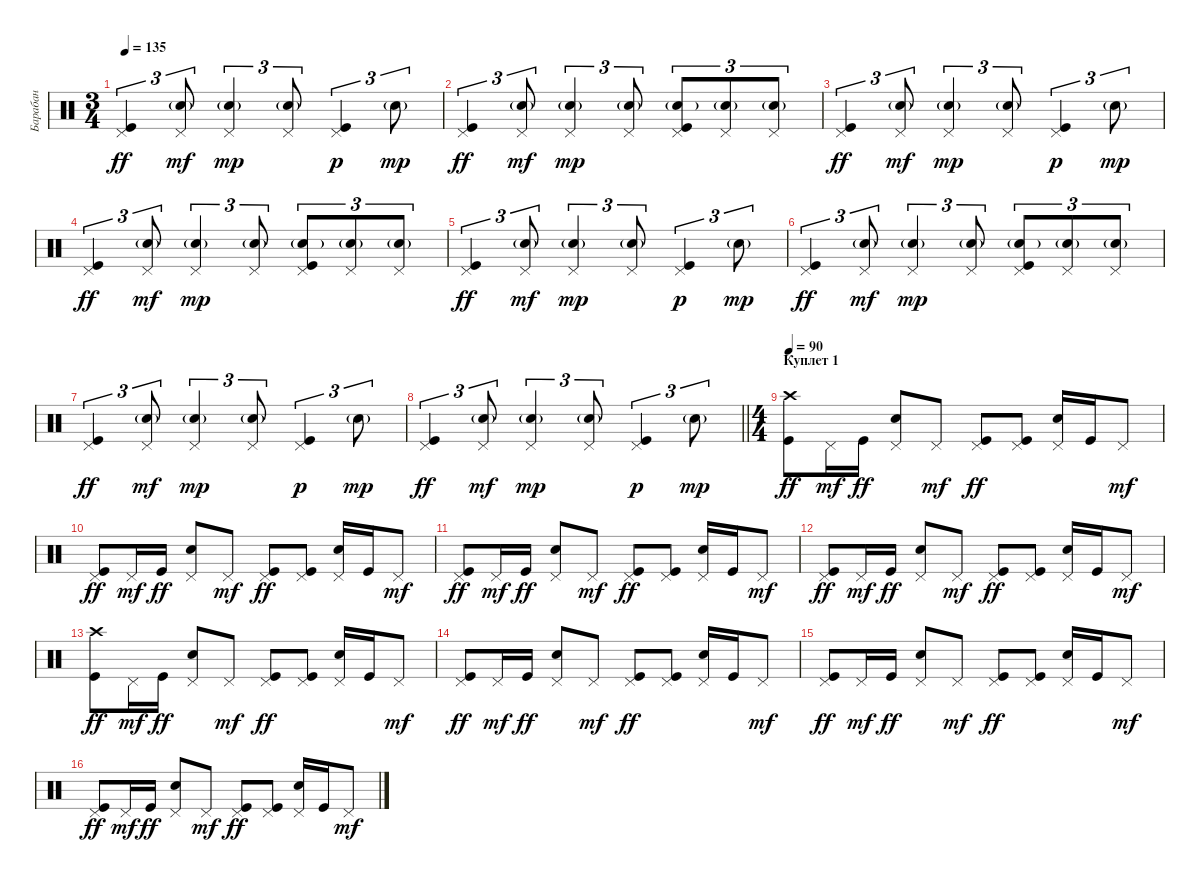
\track ("Барабан" "Барабан") {instrument percussion}
\staff {score}
\articulation defaults
\ts (3 4)
\tempo 135
\clef neutral
\ks c
("Pedal Hi-Hat (hit)" "Kick (hit)").4{tu (3 2) dy ff} ("Pedal Hi-Hat (hit)" "Snare (hit) 2"{g}).8{tu (3 2) dy mf} ("Pedal Hi-Hat (hit)" "Snare (hit) 2"{g}).4{tu (3 2) dy mp} ("Pedal Hi-Hat (hit)" "Snare (hit) 2"{g}).8{tu (3 2)} ("Pedal Hi-Hat (hit)" "Kick (hit)").4{tu (3 2) dy p} "Snare (hit) 2"{g}.8{tu (3 2) dy mp} |
("Pedal Hi-Hat (hit)" "Kick (hit)").4{tu (3 2) dy ff} ("Pedal Hi-Hat (hit)" "Snare (hit) 2"{g}).8{tu (3 2) dy mf} ("Pedal Hi-Hat (hit)" "Snare (hit) 2"{g}).4{tu (3 2) dy mp} ("Pedal Hi-Hat (hit)" "Snare (hit) 2"{g}).8{tu (3 2)} ("Pedal Hi-Hat (hit)" "Snare (hit) 2"{g} "Kick (hit)").8{tu (3 2)} ("Pedal Hi-Hat (hit)" "Snare (hit) 2"{g}).8{tu (3 2)} ("Pedal Hi-Hat (hit)" "Snare (hit) 2"{g}).8{tu (3 2)} |
("Pedal Hi-Hat (hit)" "Kick (hit)").4{tu (3 2) dy ff} ("Pedal Hi-Hat (hit)" "Snare (hit) 2"{g}).8{tu (3 2) dy mf} ("Pedal Hi-Hat (hit)" "Snare (hit) 2"{g}).4{tu (3 2) dy mp} ("Pedal Hi-Hat (hit)" "Snare (hit) 2"{g}).8{tu (3 2)} ("Pedal Hi-Hat (hit)" "Kick (hit)").4{tu (3 2) dy p} "Snare (hit) 2"{g}.8{tu (3 2) dy mp} |
("Pedal Hi-Hat (hit)" "Kick (hit)").4{tu (3 2) dy ff} ("Pedal Hi-Hat (hit)" "Snare (hit) 2"{g}).8{tu (3 2) dy mf} ("Pedal Hi-Hat (hit)" "Snare (hit) 2"{g}).4{tu (3 2) dy mp} ("Pedal Hi-Hat (hit)" "Snare (hit) 2"{g}).8{tu (3 2)} ("Pedal Hi-Hat (hit)" "Snare (hit) 2"{g} "Kick (hit)").8{tu (3 2)} ("Pedal Hi-Hat (hit)" "Snare (hit) 2"{g}).8{tu (3 2)} ("Pedal Hi-Hat (hit)" "Snare (hit) 2"{g}).8{tu (3 2)} |
("Pedal Hi-Hat (hit)" "Kick (hit)").4{tu (3 2) dy ff} ("Pedal Hi-Hat (hit)" "Snare (hit) 2"{g}).8{tu (3 2) dy mf} ("Pedal Hi-Hat (hit)" "Snare (hit) 2"{g}).4{tu (3 2) dy mp} ("Pedal Hi-Hat (hit)" "Snare (hit) 2"{g}).8{tu (3 2)} ("Pedal Hi-Hat (hit)" "Kick (hit)").4{tu (3 2) dy p} "Snare (hit) 2"{g}.8{tu (3 2) dy mp} |
("Pedal Hi-Hat (hit)" "Kick (hit)").4{tu (3 2) dy ff} ("Pedal Hi-Hat (hit)" "Snare (hit) 2"{g}).8{tu (3 2) dy mf} ("Pedal Hi-Hat (hit)" "Snare (hit) 2"{g}).4{tu (3 2) dy mp} ("Pedal Hi-Hat (hit)" "Snare (hit) 2"{g}).8{tu (3 2)} ("Pedal Hi-Hat (hit)" "Snare (hit) 2"{g} "Kick (hit)").8{tu (3 2)} ("Pedal Hi-Hat (hit)" "Snare (hit) 2"{g}).8{tu (3 2)} ("Pedal Hi-Hat (hit)" "Snare (hit) 2"{g}).8{tu (3 2)} |
("Pedal Hi-Hat (hit)" "Kick (hit)").4{tu (3 2) dy ff} ("Pedal Hi-Hat (hit)" "Snare (hit) 2"{g}).8{tu (3 2) dy mf} ("Pedal Hi-Hat (hit)" "Snare (hit) 2"{g}).4{tu (3 2) dy mp} ("Pedal Hi-Hat (hit)" "Snare (hit) 2"{g}).8{tu (3 2)} ("Pedal Hi-Hat (hit)" "Kick (hit)").4{tu (3 2) dy p} "Snare (hit) 2"{g}.8{tu (3 2) dy mp} |
\barLineRight lightlight
("Pedal Hi-Hat (hit)" "Kick (hit)").4{tu (3 2) dy ff} ("Pedal Hi-Hat (hit)" "Snare (hit) 2"{g}).8{tu (3 2) dy mf} ("Pedal Hi-Hat (hit)" "Snare (hit) 2"{g}).4{tu (3 2) dy mp} ("Pedal Hi-Hat (hit)" "Snare (hit) 2"{g}).8{tu (3 2)} ("Pedal Hi-Hat (hit)" "Kick (hit)").4{tu (3 2) dy p} "Snare (hit) 2"{g}.8{tu (3 2) dy mp} |
\ts (4 4)
\section ("" "Куплет 1")
\tempo 90
("Crash high (hit)" "Kick (hit)").8{dy ff} "Pedal Hi-Hat (hit)".16{dy mf} "Kick (hit)".16{dy ff} ("Pedal Hi-Hat (hit)" "Snare (hit) 2").8 "Pedal Hi-Hat (hit)".8{dy mf} ("Pedal Hi-Hat (hit)" "Kick (hit)").8{dy ff} ("Pedal Hi-Hat (hit)" "Kick (hit)").8 ("Pedal Hi-Hat (hit)" "Snare (hit) 2").16 "Kick (hit)".16 "Pedal Hi-Hat (hit)".8{dy mf} |
("Pedal Hi-Hat (hit)" "Kick (hit)").8{dy ff} "Pedal Hi-Hat (hit)".16{dy mf} "Kick (hit)".16{dy ff} ("Pedal Hi-Hat (hit)" "Snare (hit) 2").8 "Pedal Hi-Hat (hit)".8{dy mf} ("Pedal Hi-Hat (hit)" "Kick (hit)").8{dy ff} ("Pedal Hi-Hat (hit)" "Kick (hit)").8 ("Pedal Hi-Hat (hit)" "Snare (hit) 2").16 "Kick (hit)".16 "Pedal Hi-Hat (hit)".8{dy mf} |
("Pedal Hi-Hat (hit)" "Kick (hit)").8{dy ff} "Pedal Hi-Hat (hit)".16{dy mf} "Kick (hit)".16{dy ff} ("Pedal Hi-Hat (hit)" "Snare (hit) 2").8 "Pedal Hi-Hat (hit)".8{dy mf} ("Pedal Hi-Hat (hit)" "Kick (hit)").8{dy ff} ("Pedal Hi-Hat (hit)" "Kick (hit)").8 ("Pedal Hi-Hat (hit)" "Snare (hit) 2").16 "Kick (hit)".16 "Pedal Hi-Hat (hit)".8{dy mf} |
("Pedal Hi-Hat (hit)" "Kick (hit)").8{dy ff} "Pedal Hi-Hat (hit)".16{dy mf} "Kick (hit)".16{dy ff} ("Pedal Hi-Hat (hit)" "Snare (hit) 2").8 "Pedal Hi-Hat (hit)".8{dy mf} ("Pedal Hi-Hat (hit)" "Kick (hit)").8{dy ff} ("Pedal Hi-Hat (hit)" "Kick (hit)").8 ("Pedal Hi-Hat (hit)" "Snare (hit) 2").16 "Kick (hit)".16 "Pedal Hi-Hat (hit)".8{dy mf} |
("Crash high (hit)" "Kick (hit)").8{dy ff} "Pedal Hi-Hat (hit)".16{dy mf} "Kick (hit)".16{dy ff} ("Pedal Hi-Hat (hit)" "Snare (hit) 2").8 "Pedal Hi-Hat (hit)".8{dy mf} ("Pedal Hi-Hat (hit)" "Kick (hit)").8{dy ff} ("Pedal Hi-Hat (hit)" "Kick (hit)").8 ("Pedal Hi-Hat (hit)" "Snare (hit) 2").16 "Kick (hit)".16 "Pedal Hi-Hat (hit)".8{dy mf} |
("Pedal Hi-Hat (hit)" "Kick (hit)").8{dy ff} "Pedal Hi-Hat (hit)".16{dy mf} "Kick (hit)".16{dy ff} ("Pedal Hi-Hat (hit)" "Snare (hit) 2").8 "Pedal Hi-Hat (hit)".8{dy mf} ("Pedal Hi-Hat (hit)" "Kick (hit)").8{dy ff} ("Pedal Hi-Hat (hit)" "Kick (hit)").8 ("Pedal Hi-Hat (hit)" "Snare (hit) 2").16 "Kick (hit)".16 "Pedal Hi-Hat (hit)".8{dy mf} |
("Pedal Hi-Hat (hit)" "Kick (hit)").8{dy ff} "Pedal Hi-Hat (hit)".16{dy mf} "Kick (hit)".16{dy ff} ("Pedal Hi-Hat (hit)" "Snare (hit) 2").8 "Pedal Hi-Hat (hit)".8{dy mf} ("Pedal Hi-Hat (hit)" "Kick (hit)").8{dy ff} ("Pedal Hi-Hat (hit)" "Kick (hit)").8 ("Pedal Hi-Hat (hit)" "Snare (hit) 2").16 "Kick (hit)".16 "Pedal Hi-Hat (hit)".8{dy mf} |
("Pedal Hi-Hat (hit)" "Kick (hit)").8{dy ff} "Pedal Hi-Hat (hit)".16{dy mf} "Kick (hit)".16{dy ff} ("Pedal Hi-Hat (hit)" "Snare (hit) 2").8 "Pedal Hi-Hat (hit)".8{dy mf} ("Pedal Hi-Hat (hit)" "Kick (hit)").8{dy ff} ("Pedal Hi-Hat (hit)" "Kick (hit)").8 ("Pedal Hi-Hat (hit)" "Snare (hit) 2").16 "Kick (hit)".16 "Pedal Hi-Hat (hit)".8{dy mf}
